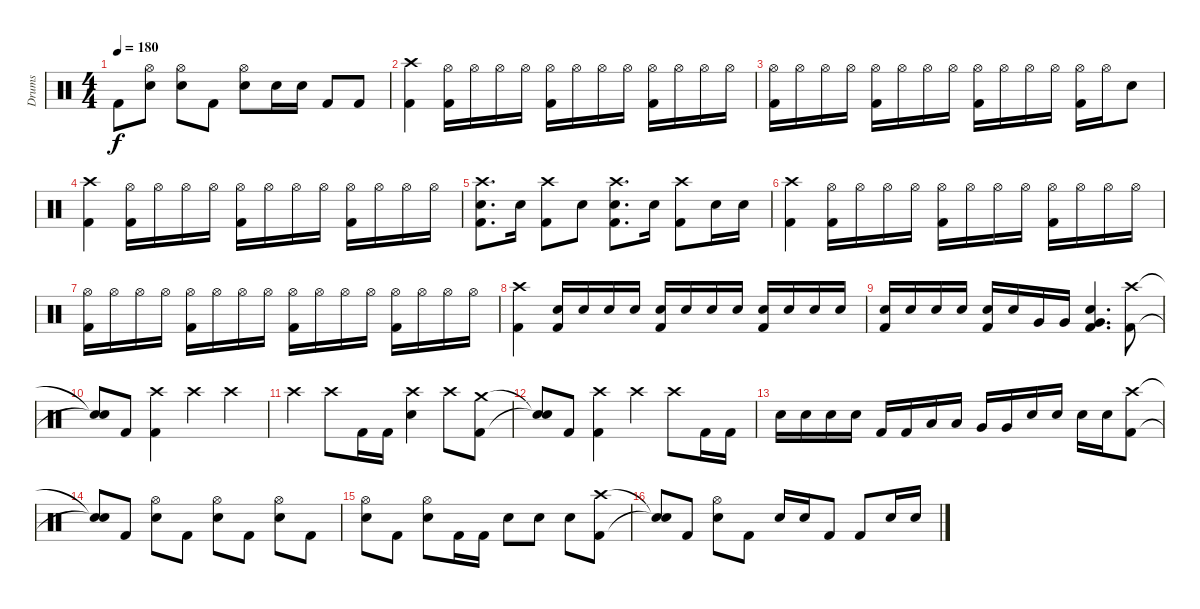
\track ("Drums" "Drums") {instrument percussion}
\staff {score}
\articulation defaults
\ts (4 4)
\tempo 180
\clef neutral
\ks c "Kick (hit) 2".8{dy f}
("Hi-Hat (open)" "Electric Snare (hit)").8 ("Hi-Hat (open)" "Electric Snare (hit)").8 "Kick (hit) 2".8 ("Hi-Hat (open)" "Electric Snare (hit)").8 "Electric Snare (hit)".16 "Electric Snare (hit)".16 "Kick (hit) 2".8 "Kick (hit) 2".8 |
("Crash high (hit)" "Kick (hit) 2").4 ("Hi-Hat (open)" "Kick (hit) 2").16 "Hi-Hat (open)".16 "Hi-Hat (open)".16 "Hi-Hat (open)".16 ("Hi-Hat (open)" "Kick (hit) 2").16 "Hi-Hat (open)".16 "Hi-Hat (open)".16 "Hi-Hat (open)".16 ("Hi-Hat (open)" "Kick (hit) 2").16 "Hi-Hat (open)".16 "Hi-Hat (open)".16 "Hi-Hat (open)".16 |
("Hi-Hat (open)" "Kick (hit) 2").16 "Hi-Hat (open)".16 "Hi-Hat (open)".16 "Hi-Hat (open)".16 ("Hi-Hat (open)" "Kick (hit) 2").16 "Hi-Hat (open)".16 "Hi-Hat (open)".16 "Hi-Hat (open)".16 ("Hi-Hat (open)" "Kick (hit) 2").16 "Hi-Hat (open)".16 "Hi-Hat (open)".16 "Hi-Hat (open)".16 ("Hi-Hat (open)" "Kick (hit) 2").16 "Hi-Hat (open)".16 "Electric Snare (hit)".8 |
("Crash high (hit)" "Kick (hit) 2").4 ("Hi-Hat (open)" "Kick (hit) 2").16 "Hi-Hat (open)".16 "Hi-Hat (open)".16 "Hi-Hat (open)".16 ("Hi-Hat (open)" "Kick (hit) 2").16 "Hi-Hat (open)".16 "Hi-Hat (open)".16 "Hi-Hat (open)".16 ("Hi-Hat (open)" "Kick (hit) 2").16 "Hi-Hat (open)".16 "Hi-Hat (open)".16 "Hi-Hat (open)".16 |
("Crash high (hit)" "Electric Snare (hit)" "Kick (hit) 2").8{d} "Electric Snare (hit)".16 ("Crash high (hit)" "Kick (hit) 2").8 "Electric Snare (hit)".8 ("Crash high (hit)" "Electric Snare (hit)" "Kick (hit) 2").8{d} "Electric Snare (hit)".16 ("Crash high (hit)" "Kick (hit) 2").8 "Electric Snare (hit)".16 "Electric Snare (hit)".16 |
("Crash high (hit)" "Kick (hit) 2").4 ("Hi-Hat (open)" "Kick (hit) 2").16 "Hi-Hat (open)".16 "Hi-Hat (open)".16 "Hi-Hat (open)".16 ("Hi-Hat (open)" "Kick (hit) 2").16 "Hi-Hat (open)".16 "Hi-Hat (open)".16 "Hi-Hat (open)".16 ("Hi-Hat (open)" "Kick (hit) 2").16 "Hi-Hat (open)".16 "Hi-Hat (open)".16 "Hi-Hat (open)".16 |
("Hi-Hat (open)" "Kick (hit) 2").16 "Hi-Hat (open)".16 "Hi-Hat (open)".16 "Hi-Hat (open)".16 ("Hi-Hat (open)" "Kick (hit) 2").16 "Hi-Hat (open)".16 "Hi-Hat (open)".16 "Hi-Hat (open)".16 ("Hi-Hat (open)" "Kick (hit) 2").16 "Hi-Hat (open)".16 "Hi-Hat (open)".16 "Hi-Hat (open)".16 ("Hi-Hat (open)" "Kick (hit) 2").16 "Hi-Hat (open)".16 "Hi-Hat (open)".16 "Hi-Hat (open)".16 |
("Crash high (hit)" "Kick (hit) 2").4 ("Electric Snare (hit)" "Kick (hit) 2").16 "Electric Snare (hit)".16 "Electric Snare (hit)".16 "Electric Snare (hit)".16 ("Electric Snare (hit)" "Kick (hit) 2").16 "Electric Snare (hit)".16 "Electric Snare (hit)".16 "Electric Snare (hit)".16 ("Electric Snare (hit)" "Kick (hit) 2").16 "Electric Snare (hit)".16 "Electric Snare (hit)".16 "Electric Snare (hit)".16 |
("Electric Snare (hit)" "Kick (hit) 2").16 "Electric Snare (hit)".16 "Electric Snare (hit)".16 "Electric Snare (hit)".16 ("Electric Snare (hit)" "Kick (hit) 2").16 "Electric Snare (hit)".16 "Very Low Tom (hit)".16 "Very Low Tom (hit)".16 ("Very Low Tom (hit)" "Electric Snare (hit)" "Kick (hit) 2").4{d} ("Crash high (hit)" "Kick (hit) 2").8 |
("Snare (hit)"{t} "Snare (hit)"{t}).8 "Kick (hit) 2".8 ("Crash high (hit)" "Kick (hit) 2").4 "Crash high (hit)".4 "Crash high (hit)".4 |
"Crash high (hit)".4 "Crash high (hit)".8 "Kick (hit) 2".16 "Kick (hit) 2".16 ("Crash high (hit)" "Electric Snare (hit)").4 "Crash high (hit)".8 ("Crash medium (hit)" "Kick (hit) 2").8 |
("Snare (hit)"{t} "Snare (hit)"{t}).8 "Kick (hit) 2".8 ("Crash high (hit)" "Kick (hit) 2").4 "Crash high (hit)".4 "Crash high (hit)".8 "Kick (hit) 2".16 "Kick (hit) 2".16 |
"Electric Snare (hit)".16 "Electric Snare (hit)".16 "Electric Snare (hit)".16 "Electric Snare (hit)".16 "Kick (hit) 2".16 "Kick (hit) 2".16 "Low Tom (hit)".16 "Low Tom (hit)".16 "Very Low Tom (hit)".16 "Very Low Tom (hit)".16 "Electric Snare (hit)".16 "Electric Snare (hit)".16 "Electric Snare (hit)".16 "Electric Snare (hit)".16 ("Crash high (hit)" "Kick (hit) 2").8 |
("Snare (hit)"{t} "Snare (hit)"{t}).8 "Kick (hit) 2".8 ("Hi-Hat (open)" "Electric Snare (hit)").8 "Kick (hit) 2".8 ("Hi-Hat (open)" "Electric Snare (hit)").8 "Kick (hit) 2".8 ("Hi-Hat (open)" "Electric Snare (hit)").8 "Kick (hit) 2".8 |
("Hi-Hat (open)" "Electric Snare (hit)").8 "Kick (hit) 2".8 ("Hi-Hat (open)" "Electric Snare (hit)").8 "Kick (hit) 2".16 "Kick (hit) 2".16 "Electric Snare (hit)".8 "Electric Snare (hit)".8 "Electric Snare (hit)".8 ("Crash high (hit)" "Kick (hit) 2").8 |
("Snare (hit)"{t} "Snare (hit)"{t}).8 "Kick (hit) 2".8 ("Hi-Hat (open)" "Electric Snare (hit)").8 "Kick (hit) 2".8 "Electric Snare (hit)".16 "Electric Snare (hit)".16 "Kick (hit) 2".8 "Kick (hit) 2".8 "Electric Snare (hit)".16 "Electric Snare (hit)".16
